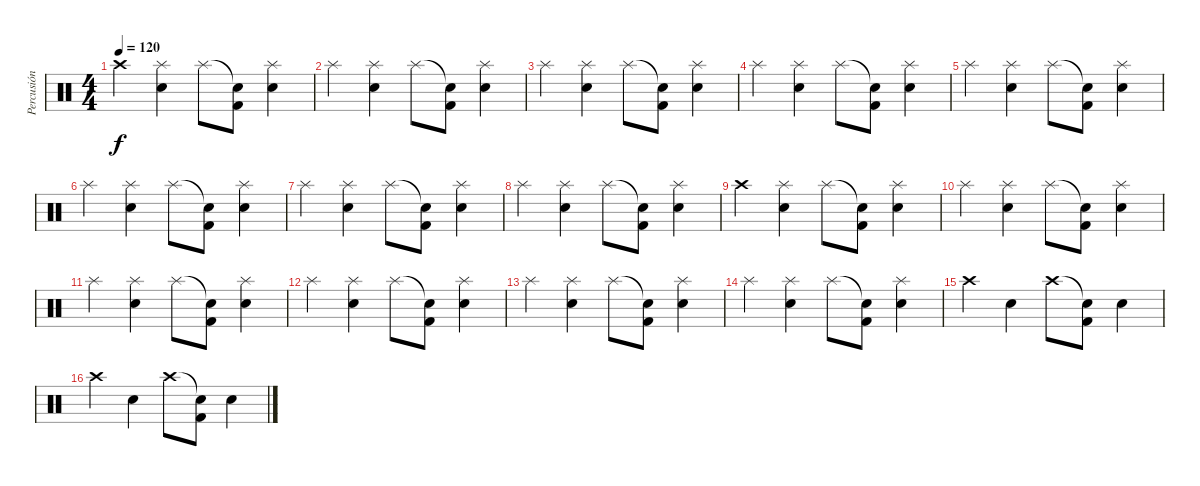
\track ("Percusión" "Percusión") {instrument percussion}
\staff {score}
\articulation defaults
\ts (4 4)
\tempo 120
\clef neutral
\ks c "Crash high (hit)".4{dy f}
("Splash (hit)" "Snare (hit) 2").4 "Splash (hit)".8 ("Snare (hit)"{t} "Kick (hit) 2").8 ("Splash (hit)" "Snare (hit) 2").4 |
"Splash (hit)".4 ("Splash (hit)" "Snare (hit) 2").4 "Splash (hit)".8 ("Snare (hit)"{t} "Kick (hit) 2").8 ("Splash (hit)" "Snare (hit) 2").4 |
"Splash (hit)".4 ("Splash (hit)" "Snare (hit) 2").4 "Splash (hit)".8 ("Snare (hit)"{t} "Kick (hit) 2").8 ("Splash (hit)" "Snare (hit) 2").4 |
"Splash (hit)".4 ("Splash (hit)" "Snare (hit) 2").4 "Splash (hit)".8 ("Snare (hit)"{t} "Kick (hit) 2").8 ("Splash (hit)" "Snare (hit) 2").4 |
"Splash (hit)".4 ("Splash (hit)" "Snare (hit) 2").4 "Splash (hit)".8 ("Snare (hit)"{t} "Kick (hit) 2").8 ("Splash (hit)" "Snare (hit) 2").4 |
"Splash (hit)".4 ("Splash (hit)" "Snare (hit) 2").4 "Splash (hit)".8 ("Snare (hit)"{t} "Kick (hit) 2").8 ("Splash (hit)" "Snare (hit) 2").4 |
"Splash (hit)".4 ("Splash (hit)" "Snare (hit) 2").4 "Splash (hit)".8 ("Snare (hit)"{t} "Kick (hit) 2").8 ("Splash (hit)" "Snare (hit) 2").4 |
"Splash (hit)".4 ("Splash (hit)" "Snare (hit) 2").4 "Splash (hit)".8 ("Snare (hit)"{t} "Kick (hit) 2").8 ("Splash (hit)" "Snare (hit) 2").4 |
"Crash high (hit)".4 ("Splash (hit)" "Snare (hit) 2").4 "Splash (hit)".8 ("Snare (hit)"{t} "Kick (hit) 2").8 ("Splash (hit)" "Snare (hit) 2").4 |
"Splash (hit)".4 ("Splash (hit)" "Snare (hit) 2").4 "Splash (hit)".8 ("Snare (hit)"{t} "Kick (hit) 2").8 ("Splash (hit)" "Snare (hit) 2").4 |
"Splash (hit)".4 ("Splash (hit)" "Snare (hit) 2").4 "Splash (hit)".8 ("Snare (hit)"{t} "Kick (hit) 2").8 ("Splash (hit)" "Snare (hit) 2").4 |
"Splash (hit)".4 ("Splash (hit)" "Snare (hit) 2").4 "Splash (hit)".8 ("Snare (hit)"{t} "Kick (hit) 2").8 ("Splash (hit)" "Snare (hit) 2").4 |
"Splash (hit)".4 ("Splash (hit)" "Snare (hit) 2").4 "Splash (hit)".8 ("Snare (hit)"{t} "Kick (hit) 2").8 ("Splash (hit)" "Snare (hit) 2").4 |
"Splash (hit)".4 ("Splash (hit)" "Snare (hit) 2").4 "Splash (hit)".8 ("Snare (hit)"{t} "Kick (hit) 2").8 ("Splash (hit)" "Snare (hit) 2").4 |
"Crash high (hit)".4 "Snare (hit) 2".4 "Crash high (hit)".8 ("Snare (hit)"{t} "Kick (hit) 2").8 "Snare (hit) 2".4 |
"Crash high (hit)".4 "Snare (hit) 2".4 "Crash high (hit)".8 ("Snare (hit)"{t} "Kick (hit) 2").8 "Snare (hit) 2".4
